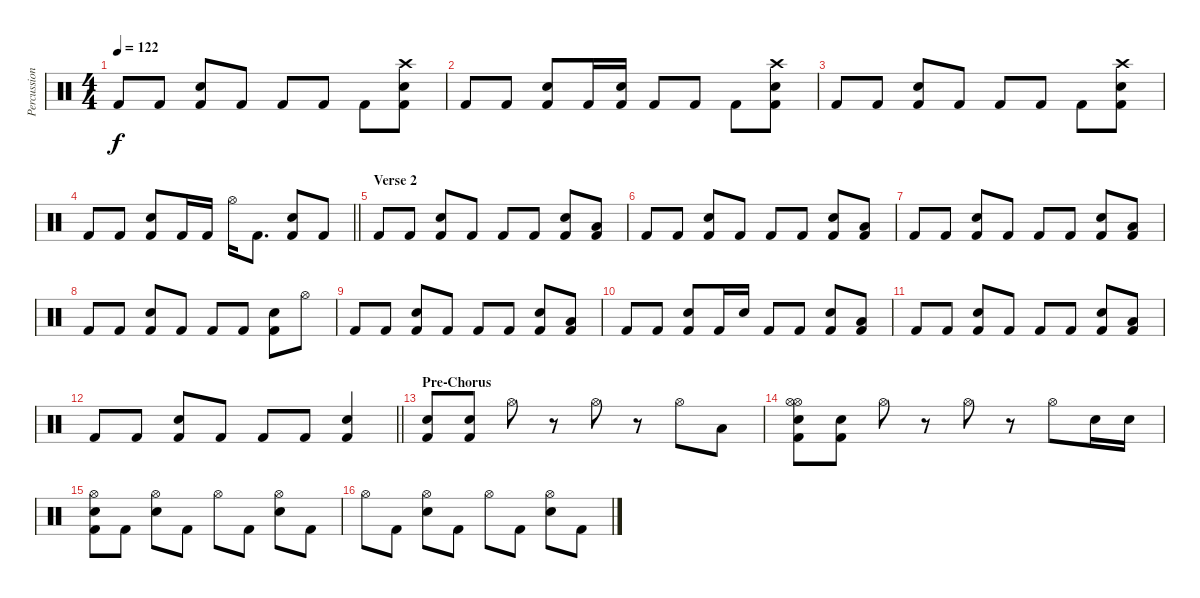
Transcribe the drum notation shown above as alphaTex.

\track ("Percussion" "Percussion") {instrument percussion}
\staff {score}
\articulation defaults
\ts (4 4)
\tempo 122
\clef neutral
\ks c "Kick (hit) 2".8{dy f} "Kick (hit) 2".8
("Snare (hit) 2" "Kick (hit) 2").8 "Kick (hit) 2".8 "Kick (hit) 2".8 "Kick (hit) 2".8 "Kick (hit) 2".8 ("Crash high (hit)" "Snare (hit) 2" "Kick (hit) 2").8 |
"Kick (hit) 2".8 "Kick (hit) 2".8 ("Snare (hit) 2" "Kick (hit) 2").8 "Kick (hit) 2".16 ("Snare (hit) 2" "Kick (hit) 2").16 "Kick (hit) 2".8 "Kick (hit) 2".8 "Kick (hit) 2".8 ("Crash high (hit)" "Snare (hit) 2" "Kick (hit) 2").8 |
"Kick (hit) 2".8 "Kick (hit) 2".8 ("Snare (hit) 2" "Kick (hit) 2").8 "Kick (hit) 2".8 "Kick (hit) 2".8 "Kick (hit) 2".8 "Kick (hit) 2".8 ("Crash high (hit)" "Snare (hit) 2" "Kick (hit) 2").8 |
\barLineRight lightlight "Kick (hit) 2".8 "Kick (hit) 2".8
("Snare (hit) 2" "Kick (hit) 2").8 "Kick (hit) 2".16 "Kick (hit) 2".16 "Hi-Hat (open)".16 "Kick (hit) 2".8{d} ("Snare (hit) 2" "Kick (hit) 2").8 "Kick (hit) 2".8 |
\section ("" "Verse 2")
"Kick (hit) 2".8 "Kick (hit) 2".8 ("Snare (hit) 2" "Kick (hit) 2").8 "Kick (hit) 2".8 "Kick (hit) 2".8 "Kick (hit) 2".8 ("Snare (hit) 2" "Kick (hit) 2").8 ("Low Tom (hit)" "Kick (hit) 2").8 |
"Kick (hit) 2".8 "Kick (hit) 2".8 ("Snare (hit) 2" "Kick (hit) 2").8 "Kick (hit) 2".8 "Kick (hit) 2".8 "Kick (hit) 2".8 ("Snare (hit) 2" "Kick (hit) 2").8 ("Low Tom (hit)" "Kick (hit) 2").8 |
"Kick (hit) 2".8 "Kick (hit) 2".8 ("Snare (hit) 2" "Kick (hit) 2").8 "Kick (hit) 2".8 "Kick (hit) 2".8 "Kick (hit) 2".8 ("Snare (hit) 2" "Kick (hit) 2").8 ("Low Tom (hit)" "Kick (hit) 2").8 |
"Kick (hit) 2".8 "Kick (hit) 2".8 ("Snare (hit) 2" "Kick (hit) 2").8 "Kick (hit) 2".8 "Kick (hit) 2".8 "Kick (hit) 2".8 ("Snare (hit) 2" "Kick (hit) 2").8 "Hi-Hat (open)".8 |
"Kick (hit) 2".8 "Kick (hit) 2".8 ("Snare (hit) 2" "Kick (hit) 2").8 "Kick (hit) 2".8 "Kick (hit) 2".8 "Kick (hit) 2".8 ("Snare (hit) 2" "Kick (hit) 2").8 ("Low Tom (hit)" "Kick (hit) 2").8 |
"Kick (hit) 2".8 "Kick (hit) 2".8 ("Snare (hit) 2" "Kick (hit) 2").8 "Kick (hit) 2".16 "Snare (hit) 2".16 "Kick (hit) 2".8 "Kick (hit) 2".8 ("Snare (hit) 2" "Kick (hit) 2").8 ("Low Tom (hit)" "Kick (hit) 2").8 |
"Kick (hit) 2".8 "Kick (hit) 2".8 ("Snare (hit) 2" "Kick (hit) 2").8 "Kick (hit) 2".8 "Kick (hit) 2".8 "Kick (hit) 2".8 ("Snare (hit) 2" "Kick (hit) 2").8 ("Low Tom (hit)" "Kick (hit) 2").8 |
\barLineRight lightlight "Kick (hit) 2".8 "Kick (hit) 2".8
("Snare (hit) 2" "Kick (hit) 2").8 "Kick (hit) 2".8 "Kick (hit) 2".8 "Kick (hit) 2".8 ("Snare (hit) 2" "Kick (hit) 2").4 |
\section ("" "Pre-Chorus")
("Snare (hit) 2" "Kick (hit) 2").8 ("Snare (hit) 2" "Kick (hit) 2").8 "Hi-Hat (open)".8 r.8 "Hi-Hat (open)".8 r.8 "Hi-Hat (open)".8 "Low Tom (hit)".8 |
("Hi-Hat (open)" "Hi-Hat (open)" "Snare (hit) 2" "Kick (hit) 2").8 ("Snare (hit) 2" "Kick (hit) 2").8 "Hi-Hat (open)".8 r.8 "Hi-Hat (open)".8 r.8 "Hi-Hat (open)".8 "Snare (hit) 2".16 "Snare (hit) 2".16 |
("Hi-Hat (open)" "Snare (hit) 2" "Kick (hit) 2").8 "Kick (hit) 2".8 ("Hi-Hat (open)" "Snare (hit) 2").8 "Kick (hit) 2".8 "Hi-Hat (open)".8 "Kick (hit) 2".8 ("Hi-Hat (open)" "Snare (hit) 2").8 "Kick (hit) 2".8 |
"Hi-Hat (open)".8 "Kick (hit) 2".8 ("Hi-Hat (open)" "Snare (hit) 2").8 "Kick (hit) 2".8 "Hi-Hat (open)".8 "Kick (hit) 2".8 ("Hi-Hat (open)" "Snare (hit) 2").8 "Kick (hit) 2".8
